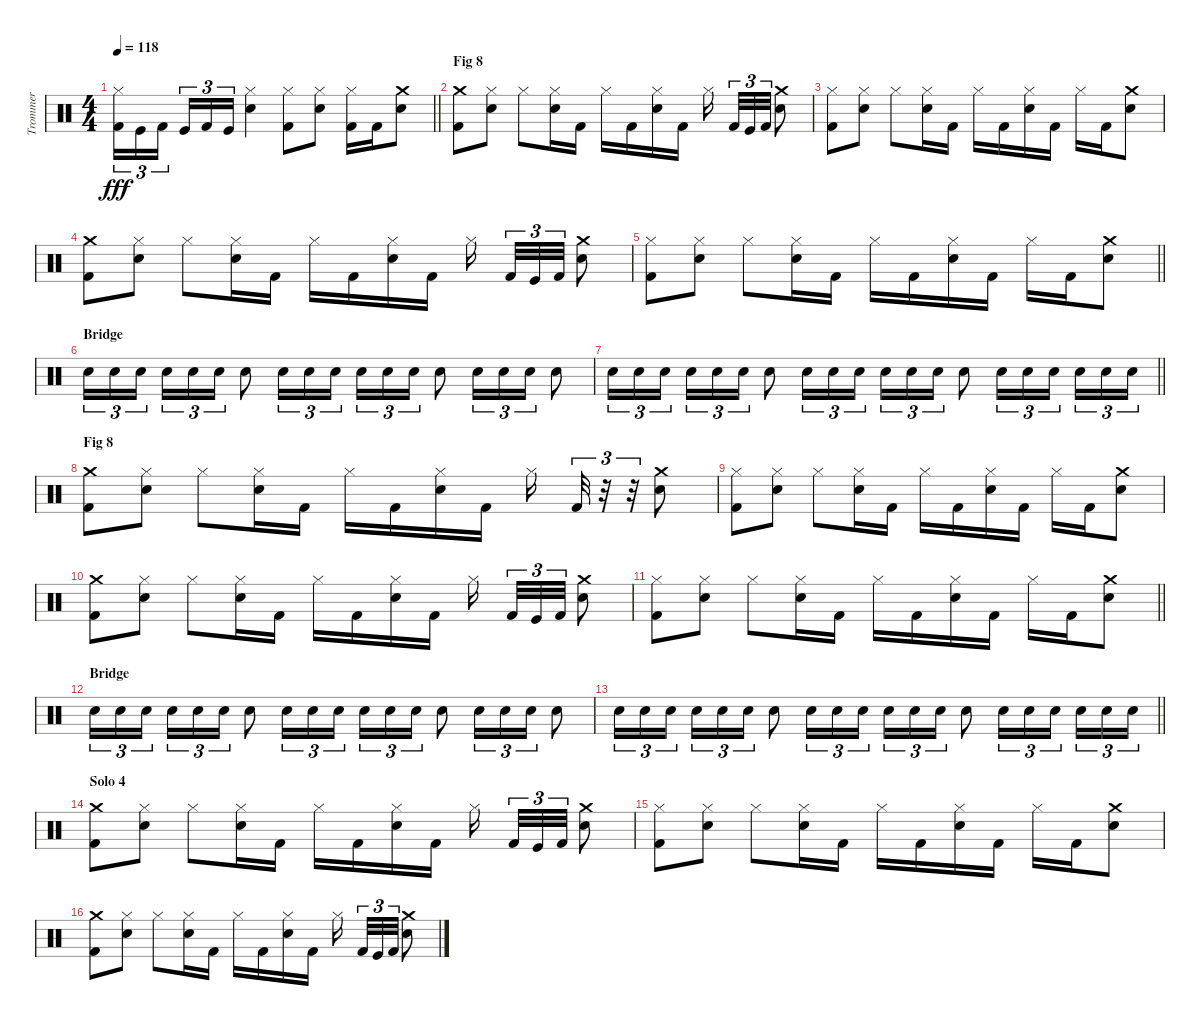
\track ("Trommer" "Trommer") {instrument percussion}
\staff {score}
\articulation defaults
\ts (4 4)
\tempo 118
\clef neutral
\barLineRight lightlight
\ks c
("Hi-Hat (closed)" "Kick (hit) 2").16{tu (3 2) dy fff} "Kick (hit)".16{tu (3 2)} "Kick (hit) 2".16{tu (3 2) beam splitsecondary} "Kick (hit)".16{tu (3 2)} "Kick (hit) 2".16{tu (3 2)} "Kick (hit)".16{tu (3 2)} ("Hi-Hat (closed)" "Electric Snare (hit)").4 ("Hi-Hat (closed)" "Kick (hit) 2").8 ("Hi-Hat (closed)" "Electric Snare (hit)").8 ("Hi-Hat (closed)" "Kick (hit) 2").16 "Kick (hit) 2".16 ("Crash medium (hit)" "Electric Snare (hit)").8 |
\section ("" "Fig 8")
("Crash medium (hit)" "Kick (hit) 2").8 ("Hi-Hat (closed)" "Electric Snare (hit)").8 "Hi-Hat (closed)".8 ("Hi-Hat (closed)" "Electric Snare (hit)").16 "Kick (hit) 2".16 "Hi-Hat (closed)".16 "Kick (hit) 2".16 ("Hi-Hat (closed)" "Electric Snare (hit)").16 "Kick (hit) 2".16 "Hi-Hat (closed)".16{beam splitsecondary} "Kick (hit) 2".32{tu (3 2)} "Kick (hit)".32{tu (3 2)} "Kick (hit) 2".32{tu (3 2)} ("Crash medium (hit)" "Electric Snare (hit)").8 |
("Hi-Hat (closed)" "Kick (hit) 2").8 ("Hi-Hat (closed)" "Electric Snare (hit)").8 "Hi-Hat (closed)".8 ("Hi-Hat (closed)" "Electric Snare (hit)").16 "Kick (hit) 2".16 "Hi-Hat (closed)".16 "Kick (hit) 2".16 ("Hi-Hat (closed)" "Electric Snare (hit)").16 "Kick (hit) 2".16 "Hi-Hat (closed)".16 "Kick (hit) 2".16 ("Crash medium (hit)" "Electric Snare (hit)").8 |
("Crash medium (hit)" "Kick (hit) 2").8 ("Hi-Hat (closed)" "Electric Snare (hit)").8 "Hi-Hat (closed)".8 ("Hi-Hat (closed)" "Electric Snare (hit)").16 "Kick (hit) 2".16 "Hi-Hat (closed)".16 "Kick (hit) 2".16 ("Hi-Hat (closed)" "Electric Snare (hit)").16 "Kick (hit) 2".16 "Hi-Hat (closed)".16{beam splitsecondary} "Kick (hit) 2".32{tu (3 2)} "Kick (hit)".32{tu (3 2)} "Kick (hit) 2".32{tu (3 2)} ("Crash medium (hit)" "Electric Snare (hit)").8 |
\barLineRight lightlight
("Hi-Hat (closed)" "Kick (hit) 2").8 ("Hi-Hat (closed)" "Electric Snare (hit)").8 "Hi-Hat (closed)".8 ("Hi-Hat (closed)" "Electric Snare (hit)").16 "Kick (hit) 2".16 "Hi-Hat (closed)".16 "Kick (hit) 2".16 ("Hi-Hat (closed)" "Electric Snare (hit)").16 "Kick (hit) 2".16 "Hi-Hat (closed)".16 "Kick (hit) 2".16 ("Crash medium (hit)" "Electric Snare (hit)").8 |
\section ("" "Bridge")
"Electric Snare (hit)".16{tu (3 2)} "Electric Snare (hit)".16{tu (3 2)} "Electric Snare (hit)".16{tu (3 2) beam splitsecondary} "Electric Snare (hit)".16{tu (3 2)} "Electric Snare (hit)".16{tu (3 2)} "Electric Snare (hit)".16{tu (3 2)} "Electric Snare (hit)".8 "Electric Snare (hit)".16{tu (3 2)} "Electric Snare (hit)".16{tu (3 2)} "Electric Snare (hit)".16{tu (3 2)} "Electric Snare (hit)".16{tu (3 2)} "Electric Snare (hit)".16{tu (3 2)} "Electric Snare (hit)".16{tu (3 2)} "Electric Snare (hit)".8 "Electric Snare (hit)".16{tu (3 2)} "Electric Snare (hit)".16{tu (3 2)} "Electric Snare (hit)".16{tu (3 2)} "Electric Snare (hit)".8 |
\barLineRight lightlight "Electric Snare (hit)".16{tu (3 2)} "Electric Snare (hit)".16{tu (3 2)} "Electric Snare (hit)".16{tu (3 2) beam splitsecondary} "Electric Snare (hit)".16{tu (3 2)} "Electric Snare (hit)".16{tu (3 2)} "Electric Snare (hit)".16{tu (3 2)} "Electric Snare (hit)".8 "Electric Snare (hit)".16{tu (3 2)} "Electric Snare (hit)".16{tu (3 2)} "Electric Snare (hit)".16{tu (3 2)} "Electric Snare (hit)".16{tu (3 2)} "Electric Snare (hit)".16{tu (3 2)} "Electric Snare (hit)".16{tu (3 2)} "Electric Snare (hit)".8 "Electric Snare (hit)".16{tu (3 2)} "Electric Snare (hit)".16{tu (3 2)} "Electric Snare (hit)".16{tu (3 2) beam splitsecondary} "Electric Snare (hit)".16{tu (3 2)} "Electric Snare (hit)".16{tu (3 2)} "Electric Snare (hit)".16{tu (3 2)}
|
\section ("" "Fig 8")
("Crash medium (hit)" "Kick (hit) 2").8 ("Hi-Hat (closed)" "Electric Snare (hit)").8 "Hi-Hat (closed)".8 ("Hi-Hat (closed)" "Electric Snare (hit)").16 "Kick (hit) 2".16 "Hi-Hat (closed)".16 "Kick (hit) 2".16 ("Hi-Hat (closed)" "Electric Snare (hit)").16 "Kick (hit) 2".16 "Hi-Hat (closed)".16 "Kick (hit) 2".32{tu (3 2)} r.32{tu (3 2)} r.32{tu (3 2)} ("Crash medium (hit)" "Electric Snare (hit)").8 |
("Hi-Hat (closed)" "Kick (hit) 2").8 ("Hi-Hat (closed)" "Electric Snare (hit)").8 "Hi-Hat (closed)".8 ("Hi-Hat (closed)" "Electric Snare (hit)").16 "Kick (hit) 2".16 "Hi-Hat (closed)".16 "Kick (hit) 2".16 ("Hi-Hat (closed)" "Electric Snare (hit)").16 "Kick (hit) 2".16 "Hi-Hat (closed)".16 "Kick (hit) 2".16 ("Crash medium (hit)" "Electric Snare (hit)").8 |
("Crash medium (hit)" "Kick (hit) 2").8 ("Hi-Hat (closed)" "Electric Snare (hit)").8 "Hi-Hat (closed)".8 ("Hi-Hat (closed)" "Electric Snare (hit)").16 "Kick (hit) 2".16 "Hi-Hat (closed)".16 "Kick (hit) 2".16 ("Hi-Hat (closed)" "Electric Snare (hit)").16 "Kick (hit) 2".16 "Hi-Hat (closed)".16{beam splitsecondary} "Kick (hit) 2".32{tu (3 2)} "Kick (hit)".32{tu (3 2)} "Kick (hit) 2".32{tu (3 2)} ("Crash medium (hit)" "Electric Snare (hit)").8 |
\barLineRight lightlight
("Hi-Hat (closed)" "Kick (hit) 2").8 ("Hi-Hat (closed)" "Electric Snare (hit)").8 "Hi-Hat (closed)".8 ("Hi-Hat (closed)" "Electric Snare (hit)").16 "Kick (hit) 2".16 "Hi-Hat (closed)".16 "Kick (hit) 2".16 ("Hi-Hat (closed)" "Electric Snare (hit)").16 "Kick (hit) 2".16 "Hi-Hat (closed)".16 "Kick (hit) 2".16 ("Crash medium (hit)" "Electric Snare (hit)").8 |
\section ("" "Bridge")
"Electric Snare (hit)".16{tu (3 2)} "Electric Snare (hit)".16{tu (3 2)} "Electric Snare (hit)".16{tu (3 2) beam splitsecondary} "Electric Snare (hit)".16{tu (3 2)} "Electric Snare (hit)".16{tu (3 2)} "Electric Snare (hit)".16{tu (3 2)} "Electric Snare (hit)".8 "Electric Snare (hit)".16{tu (3 2)} "Electric Snare (hit)".16{tu (3 2)} "Electric Snare (hit)".16{tu (3 2)} "Electric Snare (hit)".16{tu (3 2)} "Electric Snare (hit)".16{tu (3 2)} "Electric Snare (hit)".16{tu (3 2)} "Electric Snare (hit)".8 "Electric Snare (hit)".16{tu (3 2)} "Electric Snare (hit)".16{tu (3 2)} "Electric Snare (hit)".16{tu (3 2)} "Electric Snare (hit)".8 |
\barLineRight lightlight "Electric Snare (hit)".16{tu (3 2)} "Electric Snare (hit)".16{tu (3 2)} "Electric Snare (hit)".16{tu (3 2) beam splitsecondary} "Electric Snare (hit)".16{tu (3 2)} "Electric Snare (hit)".16{tu (3 2)} "Electric Snare (hit)".16{tu (3 2)} "Electric Snare (hit)".8 "Electric Snare (hit)".16{tu (3 2)} "Electric Snare (hit)".16{tu (3 2)} "Electric Snare (hit)".16{tu (3 2)} "Electric Snare (hit)".16{tu (3 2)} "Electric Snare (hit)".16{tu (3 2)} "Electric Snare (hit)".16{tu (3 2)} "Electric Snare (hit)".8 "Electric Snare (hit)".16{tu (3 2)} "Electric Snare (hit)".16{tu (3 2)} "Electric Snare (hit)".16{tu (3 2) beam splitsecondary} "Electric Snare (hit)".16{tu (3 2)} "Electric Snare (hit)".16{tu (3 2)} "Electric Snare (hit)".16{tu (3 2)}
|
\section ("" "Solo 4")
("Crash medium (hit)" "Kick (hit) 2").8 ("Hi-Hat (closed)" "Electric Snare (hit)").8 "Hi-Hat (closed)".8 ("Hi-Hat (closed)" "Electric Snare (hit)").16 "Kick (hit) 2".16 "Hi-Hat (closed)".16 "Kick (hit) 2".16 ("Hi-Hat (closed)" "Electric Snare (hit)").16 "Kick (hit) 2".16 "Hi-Hat (closed)".16{beam splitsecondary} "Kick (hit) 2".32{tu (3 2)} "Kick (hit)".32{tu (3 2)} "Kick (hit) 2".32{tu (3 2)} ("Crash medium (hit)" "Electric Snare (hit)").8 |
("Hi-Hat (closed)" "Kick (hit) 2").8 ("Hi-Hat (closed)" "Electric Snare (hit)").8 "Hi-Hat (closed)".8 ("Hi-Hat (closed)" "Electric Snare (hit)").16 "Kick (hit) 2".16 "Hi-Hat (closed)".16 "Kick (hit) 2".16 ("Hi-Hat (closed)" "Electric Snare (hit)").16 "Kick (hit) 2".16 "Hi-Hat (closed)".16 "Kick (hit) 2".16 ("Crash medium (hit)" "Electric Snare (hit)").8 |
("Crash medium (hit)" "Kick (hit) 2").8 ("Hi-Hat (closed)" "Electric Snare (hit)").8 "Hi-Hat (closed)".8 ("Hi-Hat (closed)" "Electric Snare (hit)").16 "Kick (hit) 2".16 "Hi-Hat (closed)".16 "Kick (hit) 2".16 ("Hi-Hat (closed)" "Electric Snare (hit)").16 "Kick (hit) 2".16 "Hi-Hat (closed)".16{beam splitsecondary} "Kick (hit) 2".32{tu (3 2)} "Kick (hit)".32{tu (3 2)} "Kick (hit) 2".32{tu (3 2)} ("Crash medium (hit)" "Electric Snare (hit)").8
